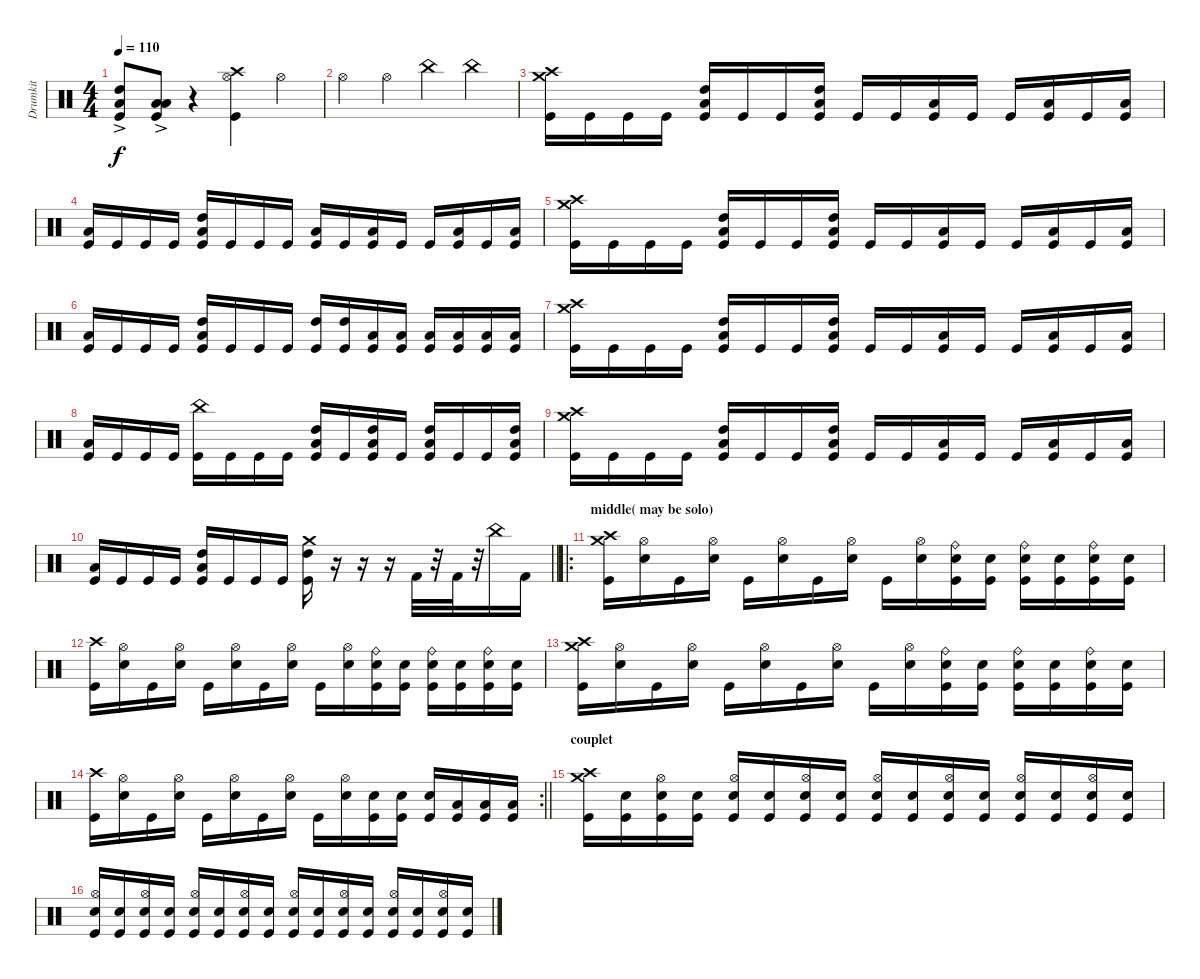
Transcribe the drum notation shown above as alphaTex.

\track ("Drumkit" "Drumkit") {instrument percussion}
\staff {score}
\articulation defaults
\ts (4 4)
\tempo 110
\clef neutral
\ks c
("High Tom (hit)"{ac} "Low Floor Tom (hit)"{ac} "Kick (hit)").8{dy f} ("Low Tom (hit)"{ac} "Low Floor Tom (hit)"{ac} "Kick (hit)").8 r.4 ("Crash high (hit)" "Hi-Hat (open)" "Kick (hit)").4 "Hi-Hat (open)".4 |
"Hi-Hat (open)".4 "Hi-Hat (open)".4 "China (hit)".4 "China (hit)".4 |
("Crash high (hit)" "Crash medium (hit)" "Kick (hit)").16 "Kick (hit)".16 "Kick (hit)".16 "Kick (hit)".16 ("High Tom (hit)" "Low Tom (hit)" "Kick (hit)").16 "Kick (hit)".16 "Kick (hit)".16 ("High Tom (hit)" "Low Tom (hit)" "Kick (hit)").16 "Kick (hit)".16 "Kick (hit)".16 ("Low Floor Tom (hit)" "Kick (hit)").16 "Kick (hit)".16 "Kick (hit)".16 ("Low Tom (hit)" "Kick (hit)").16 "Kick (hit)".16 ("Low Tom (hit)" "Kick (hit)").16 |
("Low Tom (hit)" "Kick (hit)").16 "Kick (hit)".16 "Kick (hit)".16 "Kick (hit)".16 ("High Tom (hit)" "Low Tom (hit)" "Kick (hit)").16 "Kick (hit)".16 "Kick (hit)".16 "Kick (hit)".16 ("Low Floor Tom (hit)" "Kick (hit)").16 "Kick (hit)".16 ("Low Floor Tom (hit)" "Kick (hit)").16 "Kick (hit)".16 "Kick (hit)".16 ("Low Tom (hit)" "Kick (hit)").16 "Kick (hit)".16 ("Low Tom (hit)" "Kick (hit)").16 |
("Crash high (hit)" "Crash medium (hit)" "Kick (hit)").16 "Kick (hit)".16 "Kick (hit)".16 "Kick (hit)".16 ("High Tom (hit)" "Low Tom (hit)" "Kick (hit)").16 "Kick (hit)".16 "Kick (hit)".16 ("High Tom (hit)" "Low Tom (hit)" "Kick (hit)").16 "Kick (hit)".16 "Kick (hit)".16 ("Low Floor Tom (hit)" "Kick (hit)").16 "Kick (hit)".16 "Kick (hit)".16 ("Low Tom (hit)" "Kick (hit)").16 "Kick (hit)".16 ("Low Tom (hit)" "Kick (hit)").16 |
("Low Tom (hit)" "Kick (hit)").16 "Kick (hit)".16 "Kick (hit)".16 "Kick (hit)".16 ("High Tom (hit)" "Low Tom (hit)" "Kick (hit)").16 "Kick (hit)".16 "Kick (hit)".16 "Kick (hit)".16 ("High Tom (hit)" "Kick (hit)").16 ("High Tom (hit)" "Kick (hit)").16 ("Low Tom (hit)" "Kick (hit)").16 ("Low Tom (hit)" "Kick (hit)").16 ("Low Floor Tom (hit)" "Kick (hit)").16 ("Low Floor Tom (hit)" "Kick (hit)").16 ("Low Floor Tom (hit)" "Kick (hit)").16 ("Low Floor Tom (hit)" "Kick (hit)").16 |
("Crash high (hit)" "Crash medium (hit)" "Kick (hit)").16 "Kick (hit)".16 "Kick (hit)".16 "Kick (hit)".16 ("High Tom (hit)" "Low Tom (hit)" "Kick (hit)").16 "Kick (hit)".16 "Kick (hit)".16 ("High Tom (hit)" "Low Tom (hit)" "Kick (hit)").16 "Kick (hit)".16 "Kick (hit)".16 ("Low Floor Tom (hit)" "Kick (hit)").16 "Kick (hit)".16 "Kick (hit)".16 ("Low Tom (hit)" "Kick (hit)").16 "Kick (hit)".16 ("Low Tom (hit)" "Kick (hit)").16 |
("Low Tom (hit)" "Kick (hit)").16 "Kick (hit)".16 "Kick (hit)".16 "Kick (hit)".16 ("China (hit)" "Kick (hit)").16 "Kick (hit)".16 "Kick (hit)".16 "Kick (hit)".16 ("High Tom (hit)" "Low Floor Tom (hit)" "Kick (hit)").16 "Kick (hit)".16 ("High Tom (hit)" "Low Floor Tom (hit)" "Kick (hit)").16 "Kick (hit)".16 ("High Tom (hit)" "Low Floor Tom (hit)" "Kick (hit)").16 "Kick (hit)".16 "Kick (hit)".16 ("Low Tom (hit)" "High Tom (hit)" "Kick (hit)").16 |
("Crash high (hit)" "Crash medium (hit)" "Kick (hit)").16 "Kick (hit)".16 "Kick (hit)".16 "Kick (hit)".16 ("High Tom (hit)" "Low Tom (hit)" "Kick (hit)").16 "Kick (hit)".16 "Kick (hit)".16 ("High Tom (hit)" "Low Tom (hit)" "Kick (hit)").16 "Kick (hit)".16 "Kick (hit)".16 ("Low Floor Tom (hit)" "Kick (hit)").16 "Kick (hit)".16 "Kick (hit)".16 ("Low Tom (hit)" "Kick (hit)").16 "Kick (hit)".16 ("Low Tom (hit)" "Kick (hit)").16 |
\barLineRight lightlight
("Low Tom (hit)" "Kick (hit)").16 "Kick (hit)".16 "Kick (hit)".16 "Kick (hit)".16 ("High Tom (hit)" "Low Tom (hit)" "Kick (hit)").16 "Kick (hit)".16 "Kick (hit)".16 "Kick (hit)".16 ("Crash medium (hit)" "High Tom (hit)" "Kick (hit)").16 r.16 r.16 r.16 "Kick (hit) 2".32 r.32 "Kick (hit) 2".32 r.32 "China (hit)".16 "Kick (hit) 2".16 |
\ro
\section ("" "middle( may be solo)")
("Crash high (hit)" "Crash medium (hit)" "Kick (hit)").16 ("Hi-Hat (open)" "Snare (hit) 2").16 "Kick (hit)".16 ("Hi-Hat (open)" "Snare (hit) 2").16 "Kick (hit)".16 ("Hi-Hat (open)" "Snare (hit) 2").16 "Kick (hit)".16 ("Hi-Hat (open)" "Snare (hit) 2").16 "Kick (hit)".16 ("Hi-Hat (open)" "Snare (hit) 2").16 ("Ride (bell)" "Snare (hit) 2" "Kick (hit)").16 ("Snare (hit) 2" "Kick (hit)").16 ("Ride (bell)" "Snare (hit) 2" "Kick (hit)").16 ("Snare (hit) 2" "Kick (hit)").16 ("Ride (bell)" "Snare (hit) 2" "Kick (hit)").16 ("Snare (hit) 2" "Kick (hit)").16 |
("Crash high (hit)" "Kick (hit)").16 ("Hi-Hat (open)" "Snare (hit) 2").16 "Kick (hit)".16 ("Hi-Hat (open)" "Snare (hit) 2").16 "Kick (hit)".16 ("Hi-Hat (open)" "Snare (hit) 2").16 "Kick (hit)".16 ("Hi-Hat (open)" "Snare (hit) 2").16 "Kick (hit)".16 ("Hi-Hat (open)" "Snare (hit) 2").16 ("Ride (bell)" "Snare (hit) 2" "Kick (hit)").16 ("Snare (hit) 2" "Kick (hit)").16 ("Ride (bell)" "Snare (hit) 2" "Kick (hit)").16 ("Snare (hit) 2" "Kick (hit)").16 ("Ride (bell)" "Snare (hit) 2" "Kick (hit)").16 ("Snare (hit) 2" "Kick (hit)").16 |
("Crash high (hit)" "Crash medium (hit)" "Kick (hit)").16 ("Hi-Hat (open)" "Snare (hit) 2").16 "Kick (hit)".16 ("Hi-Hat (open)" "Snare (hit) 2").16 "Kick (hit)".16 ("Hi-Hat (open)" "Snare (hit) 2").16 "Kick (hit)".16 ("Hi-Hat (open)" "Snare (hit) 2").16 "Kick (hit)".16 ("Hi-Hat (open)" "Snare (hit) 2").16 ("Ride (bell)" "Snare (hit) 2" "Kick (hit)").16 ("Snare (hit) 2" "Kick (hit)").16 ("Ride (bell)" "Snare (hit) 2" "Kick (hit)").16 ("Snare (hit) 2" "Kick (hit)").16 ("Ride (bell)" "Snare (hit) 2" "Kick (hit)").16 ("Snare (hit) 2" "Kick (hit)").16 |
\rc 2
\barLineRight lightlight
("Crash high (hit)" "Kick (hit)").16 ("Hi-Hat (open)" "Snare (hit) 2").16 "Kick (hit)".16 ("Hi-Hat (open)" "Snare (hit) 2").16 "Kick (hit)".16 ("Hi-Hat (open)" "Snare (hit) 2").16 "Kick (hit)".16 ("Hi-Hat (open)" "Snare (hit) 2").16 "Kick (hit)".16 ("Hi-Hat (open)" "Snare (hit) 2").16 ("Snare (hit) 2" "Kick (hit)").16 ("Snare (hit) 2" "Kick (hit)").16 ("Snare (hit) 2" "Kick (hit)").16 ("Low Tom (hit)" "Kick (hit)").16 ("Low Tom (hit)" "Kick (hit)").16 ("Low Tom (hit)" "Kick (hit)").16 |
\section ("" "couplet")
("Crash high (hit)" "Crash medium (hit)" "Kick (hit)").16 ("Snare (hit) 2" "Kick (hit)").16 ("Hi-Hat (open)" "Snare (hit) 2" "Kick (hit)").16 ("Snare (hit) 2" "Kick (hit)").16 ("Hi-Hat (open)" "Snare (hit) 2" "Kick (hit)").16 ("Snare (hit) 2" "Kick (hit)").16 ("Hi-Hat (open)" "Snare (hit) 2" "Kick (hit)").16 ("Snare (hit) 2" "Kick (hit)").16 ("Hi-Hat (open)" "Snare (hit) 2" "Kick (hit)").16 ("Snare (hit) 2" "Kick (hit)").16 ("Hi-Hat (open)" "Snare (hit) 2" "Kick (hit)").16 ("Snare (hit) 2" "Kick (hit)").16 ("Hi-Hat (open)" "Snare (hit) 2" "Kick (hit)").16 ("Snare (hit) 2" "Kick (hit)").16 ("Hi-Hat (open)" "Snare (hit) 2" "Kick (hit)").16 ("Snare (hit) 2" "Kick (hit)").16 |
("Hi-Hat (open)" "Snare (hit) 2" "Kick (hit)").16 ("Snare (hit) 2" "Kick (hit)").16 ("Hi-Hat (open)" "Snare (hit) 2" "Kick (hit)").16 ("Snare (hit) 2" "Kick (hit)").16 ("Hi-Hat (open)" "Snare (hit) 2" "Kick (hit)").16 ("Snare (hit) 2" "Kick (hit)").16 ("Hi-Hat (open)" "Snare (hit) 2" "Kick (hit)").16 ("Snare (hit) 2" "Kick (hit)").16 ("Hi-Hat (open)" "Snare (hit) 2" "Kick (hit)").16 ("Snare (hit) 2" "Kick (hit)").16 ("Hi-Hat (open)" "Snare (hit) 2" "Kick (hit)").16 ("Snare (hit) 2" "Kick (hit)").16 ("Hi-Hat (open)" "Snare (hit) 2" "Kick (hit)").16 ("Snare (hit) 2" "Kick (hit)").16 ("Hi-Hat (open)" "Snare (hit) 2" "Kick (hit)").16 ("Snare (hit) 2" "Kick (hit)").16
